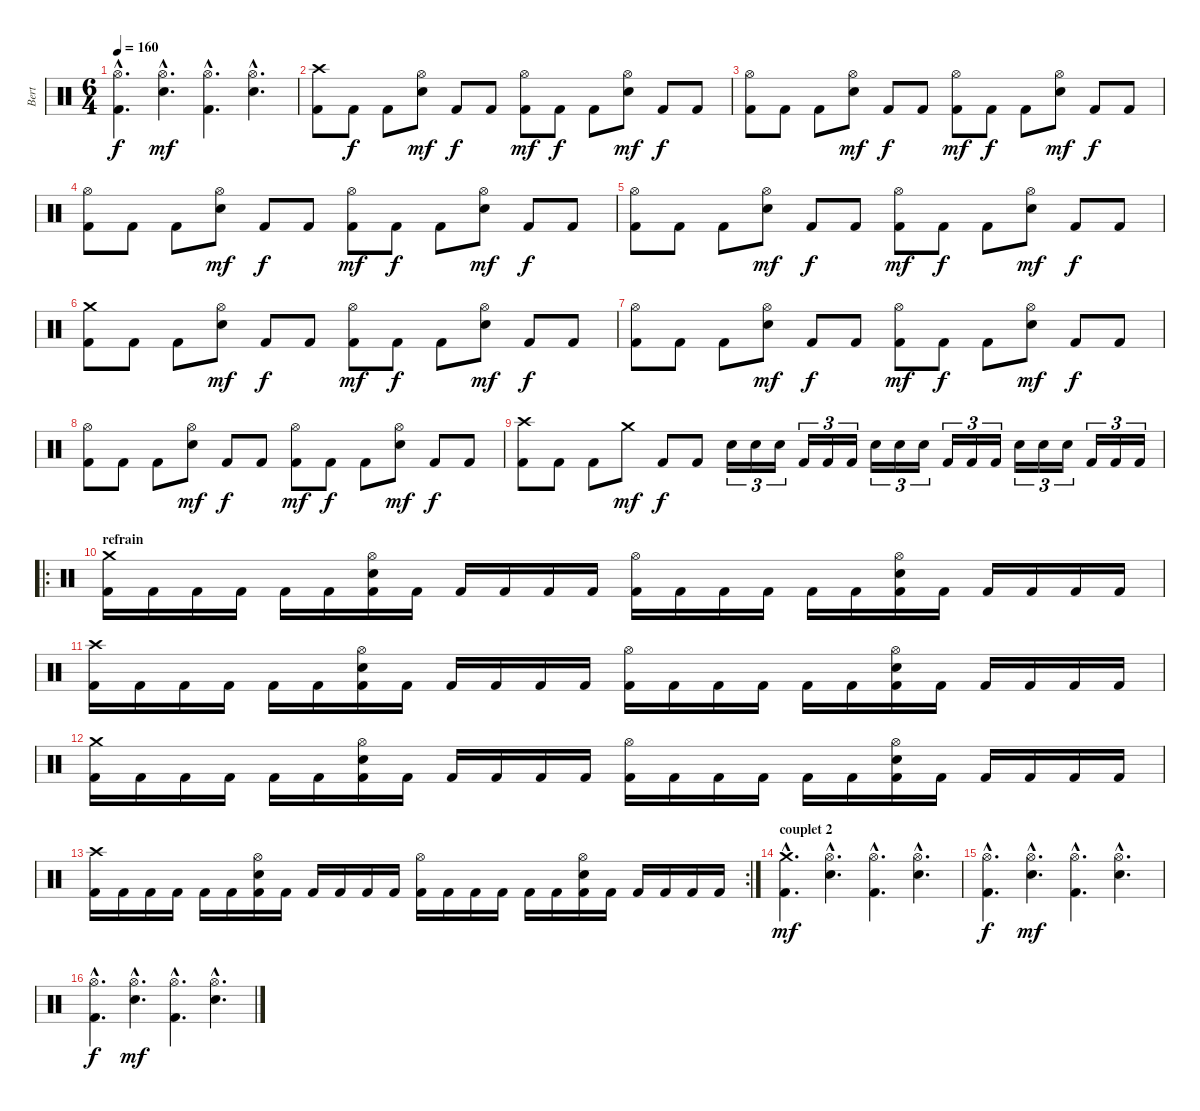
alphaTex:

\track ("Bert" "Bert") {instrument percussion}
\staff {score}
\articulation defaults
\ts (6 4)
\tempo 160
\clef neutral
\ks c
("Hi-Hat (open)"{hac} "Kick (hit) 2"{hac}).4{d dy f} ("Hi-Hat (open)"{hac} "Snare (hit) 2"{hac}).4{d dy mf} ("Hi-Hat (open)"{hac} "Kick (hit) 2"{hac}).4{d} ("Hi-Hat (open)"{hac} "Snare (hit) 2"{hac}).4{d} |
("Crash high (hit)" "Kick (hit) 2").8 "Kick (hit) 2".8{dy f} "Kick (hit) 2".8 ("Hi-Hat (open)" "Snare (hit) 2").8{dy mf} "Kick (hit) 2".8{dy f} "Kick (hit) 2".8 ("Hi-Hat (open)" "Kick (hit) 2").8{dy mf} "Kick (hit) 2".8{dy f} "Kick (hit) 2".8 ("Hi-Hat (open)" "Snare (hit) 2").8{dy mf} "Kick (hit) 2".8{dy f} "Kick (hit) 2".8 |
("Hi-Hat (open)" "Kick (hit) 2").8 "Kick (hit) 2".8 "Kick (hit) 2".8 ("Hi-Hat (open)" "Snare (hit) 2").8{dy mf} "Kick (hit) 2".8{dy f} "Kick (hit) 2".8 ("Hi-Hat (open)" "Kick (hit) 2").8{dy mf} "Kick (hit) 2".8{dy f} "Kick (hit) 2".8 ("Hi-Hat (open)" "Snare (hit) 2").8{dy mf} "Kick (hit) 2".8{dy f} "Kick (hit) 2".8 |
("Hi-Hat (open)" "Kick (hit) 2").8 "Kick (hit) 2".8 "Kick (hit) 2".8 ("Hi-Hat (open)" "Snare (hit) 2").8{dy mf} "Kick (hit) 2".8{dy f} "Kick (hit) 2".8 ("Hi-Hat (open)" "Kick (hit) 2").8{dy mf} "Kick (hit) 2".8{dy f} "Kick (hit) 2".8 ("Hi-Hat (open)" "Snare (hit) 2").8{dy mf} "Kick (hit) 2".8{dy f} "Kick (hit) 2".8 |
("Hi-Hat (open)" "Kick (hit) 2").8 "Kick (hit) 2".8 "Kick (hit) 2".8 ("Hi-Hat (open)" "Snare (hit) 2").8{dy mf} "Kick (hit) 2".8{dy f} "Kick (hit) 2".8 ("Hi-Hat (open)" "Kick (hit) 2").8{dy mf} "Kick (hit) 2".8{dy f} "Kick (hit) 2".8 ("Hi-Hat (open)" "Snare (hit) 2").8{dy mf} "Kick (hit) 2".8{dy f} "Kick (hit) 2".8 |
("Crash medium (hit)" "Kick (hit) 2").8 "Kick (hit) 2".8 "Kick (hit) 2".8 ("Hi-Hat (open)" "Snare (hit) 2").8{dy mf} "Kick (hit) 2".8{dy f} "Kick (hit) 2".8 ("Hi-Hat (open)" "Kick (hit) 2").8{dy mf} "Kick (hit) 2".8{dy f} "Kick (hit) 2".8 ("Hi-Hat (open)" "Snare (hit) 2").8{dy mf} "Kick (hit) 2".8{dy f} "Kick (hit) 2".8 |
("Hi-Hat (open)" "Kick (hit) 2").8 "Kick (hit) 2".8 "Kick (hit) 2".8 ("Hi-Hat (open)" "Snare (hit) 2").8{dy mf} "Kick (hit) 2".8{dy f} "Kick (hit) 2".8 ("Hi-Hat (open)" "Kick (hit) 2").8{dy mf} "Kick (hit) 2".8{dy f} "Kick (hit) 2".8 ("Hi-Hat (open)" "Snare (hit) 2").8{dy mf} "Kick (hit) 2".8{dy f} "Kick (hit) 2".8 |
("Hi-Hat (open)" "Kick (hit) 2").8 "Kick (hit) 2".8 "Kick (hit) 2".8 ("Hi-Hat (open)" "Snare (hit) 2").8{dy mf} "Kick (hit) 2".8{dy f} "Kick (hit) 2".8 ("Hi-Hat (open)" "Kick (hit) 2").8{dy mf} "Kick (hit) 2".8{dy f} "Kick (hit) 2".8 ("Hi-Hat (open)" "Snare (hit) 2").8{dy mf} "Kick (hit) 2".8{dy f} "Kick (hit) 2".8 |
("Crash high (hit)" "Kick (hit) 2").8 "Kick (hit) 2".8 "Kick (hit) 2".8 "Crash medium (hit)".8{dy mf} "Kick (hit) 2".8{dy f} "Kick (hit) 2".8 "Snare (hit) 2".16{tu (3 2)} "Snare (hit) 2".16{tu (3 2)} "Snare (hit) 2".16{tu (3 2)} "Kick (hit) 2".16{tu (3 2)} "Kick (hit) 2".16{tu (3 2)} "Kick (hit) 2".16{tu (3 2)} "Snare (hit) 2".16{tu (3 2)} "Snare (hit) 2".16{tu (3 2)} "Snare (hit) 2".16{tu (3 2)} "Kick (hit) 2".16{tu (3 2)} "Kick (hit) 2".16{tu (3 2)} "Kick (hit) 2".16{tu (3 2)} "Snare (hit) 2".16{tu (3 2)} "Snare (hit) 2".16{tu (3 2)} "Snare (hit) 2".16{tu (3 2)} "Kick (hit) 2".16{tu (3 2)} "Kick (hit) 2".16{tu (3 2)} "Kick (hit) 2".16{tu (3 2)} |
\ro
\section ("" "refrain")
("Crash medium (hit)" "Kick (hit) 2").16 "Kick (hit) 2".16 "Kick (hit) 2".16 "Kick (hit) 2".16 "Kick (hit) 2".16 "Kick (hit) 2".16 ("Hi-Hat (open)" "Snare (hit) 2" "Kick (hit) 2").16 "Kick (hit) 2".16 "Kick (hit) 2".16 "Kick (hit) 2".16 "Kick (hit) 2".16 "Kick (hit) 2".16 ("Hi-Hat (open)" "Kick (hit) 2").16 "Kick (hit) 2".16 "Kick (hit) 2".16 "Kick (hit) 2".16 "Kick (hit) 2".16 "Kick (hit) 2".16 ("Hi-Hat (open)" "Snare (hit) 2" "Kick (hit) 2").16 "Kick (hit) 2".16 "Kick (hit) 2".16 "Kick (hit) 2".16 "Kick (hit) 2".16 "Kick (hit) 2".16 |
("Crash high (hit)" "Kick (hit) 2").16 "Kick (hit) 2".16 "Kick (hit) 2".16 "Kick (hit) 2".16 "Kick (hit) 2".16 "Kick (hit) 2".16 ("Hi-Hat (open)" "Snare (hit) 2" "Kick (hit) 2").16 "Kick (hit) 2".16 "Kick (hit) 2".16 "Kick (hit) 2".16 "Kick (hit) 2".16 "Kick (hit) 2".16 ("Hi-Hat (open)" "Kick (hit) 2").16 "Kick (hit) 2".16 "Kick (hit) 2".16 "Kick (hit) 2".16 "Kick (hit) 2".16 "Kick (hit) 2".16 ("Hi-Hat (open)" "Snare (hit) 2" "Kick (hit) 2").16 "Kick (hit) 2".16 "Kick (hit) 2".16 "Kick (hit) 2".16 "Kick (hit) 2".16 "Kick (hit) 2".16 |
("Crash medium (hit)" "Kick (hit) 2").16 "Kick (hit) 2".16 "Kick (hit) 2".16 "Kick (hit) 2".16 "Kick (hit) 2".16 "Kick (hit) 2".16 ("Hi-Hat (open)" "Snare (hit) 2" "Kick (hit) 2").16 "Kick (hit) 2".16 "Kick (hit) 2".16 "Kick (hit) 2".16 "Kick (hit) 2".16 "Kick (hit) 2".16 ("Hi-Hat (open)" "Kick (hit) 2").16 "Kick (hit) 2".16 "Kick (hit) 2".16 "Kick (hit) 2".16 "Kick (hit) 2".16 "Kick (hit) 2".16 ("Hi-Hat (open)" "Snare (hit) 2" "Kick (hit) 2").16 "Kick (hit) 2".16 "Kick (hit) 2".16 "Kick (hit) 2".16 "Kick (hit) 2".16 "Kick (hit) 2".16 |
\rc 2
("Crash high (hit)" "Kick (hit) 2").16 "Kick (hit) 2".16 "Kick (hit) 2".16 "Kick (hit) 2".16 "Kick (hit) 2".16 "Kick (hit) 2".16 ("Hi-Hat (open)" "Snare (hit) 2" "Kick (hit) 2").16 "Kick (hit) 2".16 "Kick (hit) 2".16 "Kick (hit) 2".16 "Kick (hit) 2".16 "Kick (hit) 2".16 ("Hi-Hat (open)" "Kick (hit) 2").16 "Kick (hit) 2".16 "Kick (hit) 2".16 "Kick (hit) 2".16 "Kick (hit) 2".16 "Kick (hit) 2".16 ("Hi-Hat (open)" "Snare (hit) 2" "Kick (hit) 2").16 "Kick (hit) 2".16 "Kick (hit) 2".16 "Kick (hit) 2".16 "Kick (hit) 2".16 "Kick (hit) 2".16 |
\section ("" "couplet 2")
("Crash medium (hit)"{hac} "Kick (hit) 2"{hac}).4{d dy mf} ("Hi-Hat (open)"{hac} "Snare (hit) 2"{hac}).4{d} ("Hi-Hat (open)"{hac} "Kick (hit) 2"{hac}).4{d} ("Hi-Hat (open)"{hac} "Snare (hit) 2"{hac}).4{d} |
("Hi-Hat (open)"{hac} "Kick (hit) 2"{hac}).4{d dy f} ("Hi-Hat (open)"{hac} "Snare (hit) 2"{hac}).4{d dy mf} ("Hi-Hat (open)"{hac} "Kick (hit) 2"{hac}).4{d} ("Hi-Hat (open)"{hac} "Snare (hit) 2"{hac}).4{d} |
("Hi-Hat (open)"{hac} "Kick (hit) 2"{hac}).4{d dy f} ("Hi-Hat (open)"{hac} "Snare (hit) 2"{hac}).4{d dy mf} ("Hi-Hat (open)"{hac} "Kick (hit) 2"{hac}).4{d} ("Hi-Hat (open)"{hac} "Snare (hit) 2"{hac}).4{d}
